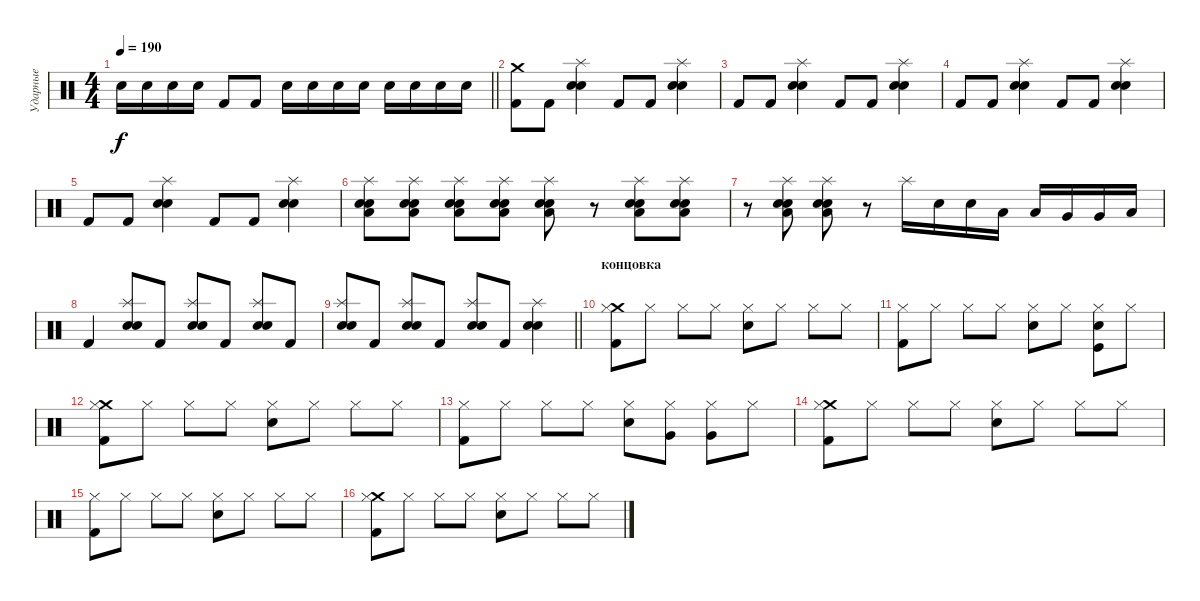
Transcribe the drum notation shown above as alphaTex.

\track ("Ударные" "Ударные") {instrument percussion}
\staff {score}
\articulation defaults
\ts (4 4)
\tempo 190
\clef neutral
\barLineRight lightlight
\ks c "Electric Snare (hit)".16{dy f} "Electric Snare (hit)".16 "Electric Snare (hit)".16 "Electric Snare (hit)".16 "Kick (hit) 2".8 "Kick (hit) 2".8 "Electric Snare (hit)".16 "Electric Snare (hit)".16 "Electric Snare (hit)".16 "Electric Snare (hit)".16 "Electric Snare (hit)".16 "Electric Snare (hit)".16 "Electric Snare (hit)".16 "Electric Snare (hit)".16
|
("Crash medium (hit)" "Kick (hit) 2").8 "Kick (hit) 2".8 ("Splash (hit)" "Electric Snare (hit)" "Snare (hit) 2").4 "Kick (hit) 2".8 "Kick (hit) 2".8 ("Splash (hit)" "Electric Snare (hit)" "Snare (hit) 2").4 |
"Kick (hit) 2".8 "Kick (hit) 2".8 ("Splash (hit)" "Electric Snare (hit)" "Snare (hit) 2").4 "Kick (hit) 2".8 "Kick (hit) 2".8 ("Splash (hit)" "Electric Snare (hit)" "Snare (hit) 2").4 |
"Kick (hit) 2".8 "Kick (hit) 2".8 ("Splash (hit)" "Electric Snare (hit)" "Snare (hit) 2").4 "Kick (hit) 2".8 "Kick (hit) 2".8 ("Splash (hit)" "Electric Snare (hit)" "Snare (hit) 2").4 |
"Kick (hit) 2".8 "Kick (hit) 2".8 ("Splash (hit)" "Electric Snare (hit)" "Snare (hit) 2").4 "Kick (hit) 2".8 "Kick (hit) 2".8 ("Splash (hit)" "Electric Snare (hit)" "Snare (hit) 2").4 |
("Splash (hit)" "Electric Snare (hit)" "Low Tom (hit)" "Snare (hit) 2").8 ("Splash (hit)" "Electric Snare (hit)" "Low Tom (hit)" "Snare (hit) 2").8 ("Splash (hit)" "Electric Snare (hit)" "Low Tom (hit)" "Snare (hit) 2").8 ("Splash (hit)" "Electric Snare (hit)" "Low Tom (hit)" "Snare (hit) 2").8 ("Splash (hit)" "Electric Snare (hit)" "Low Tom (hit)" "Snare (hit) 2").8 r.8 ("Splash (hit)" "Electric Snare (hit)" "Low Tom (hit)" "Snare (hit) 2").8 ("Splash (hit)" "Electric Snare (hit)" "Low Tom (hit)" "Snare (hit) 2").8 |
r.8 ("Splash (hit)" "Electric Snare (hit)" "Low Tom (hit)" "Snare (hit) 2").8 ("Splash (hit)" "Electric Snare (hit)" "Low Tom (hit)" "Snare (hit) 2").8 r.8 "Splash (hit)".16 "Electric Snare (hit)".16 "Electric Snare (hit)".16 "Low Tom (hit)".16 "Low Tom (hit)".16 "Very Low Tom (hit)".16 "Very Low Tom (hit)".16 "Low Floor Tom (hit)".16 |
"Kick (hit) 2".4 ("Splash (hit)" "Electric Snare (hit)" "Snare (hit) 2").8 "Kick (hit) 2".8 ("Splash (hit)" "Electric Snare (hit)" "Snare (hit) 2").8 "Kick (hit) 2".8 ("Splash (hit)" "Electric Snare (hit)" "Snare (hit) 2").8 "Kick (hit) 2".8 |
\barLineRight lightlight
("Splash (hit)" "Electric Snare (hit)" "Snare (hit) 2").8 "Kick (hit) 2".8 ("Splash (hit)" "Electric Snare (hit)" "Snare (hit) 2").8 "Kick (hit) 2".8 ("Splash (hit)" "Electric Snare (hit)" "Snare (hit) 2").8 "Kick (hit) 2".8 ("Splash (hit)" "Electric Snare (hit)" "Snare (hit) 2").4 |
\section ("" "концовка")
("Crash medium (hit)" "Hi-Hat (closed)" "Kick (hit) 2").8 "Hi-Hat (closed)".8 "Hi-Hat (closed)".8 "Hi-Hat (closed)".8 ("Hi-Hat (closed)" "Electric Snare (hit)").8 "Hi-Hat (closed)".8 "Hi-Hat (closed)".8 "Hi-Hat (closed)".8 |
("Hi-Hat (closed)" "Kick (hit) 2").8 "Hi-Hat (closed)".8 "Hi-Hat (closed)".8 "Hi-Hat (closed)".8 ("Hi-Hat (closed)" "Electric Snare (hit)").8 "Hi-Hat (closed)".8 ("Hi-Hat (closed)" "Electric Snare (hit)" "Kick (hit)").8 "Hi-Hat (closed)".8 |
("Crash medium (hit)" "Hi-Hat (closed)" "Kick (hit) 2").8 "Hi-Hat (closed)".8 "Hi-Hat (closed)".8 "Hi-Hat (closed)".8 ("Hi-Hat (closed)" "Electric Snare (hit)").8 "Hi-Hat (closed)".8 "Hi-Hat (closed)".8 "Hi-Hat (closed)".8 |
("Hi-Hat (closed)" "Kick (hit) 2").8 "Hi-Hat (closed)".8 "Hi-Hat (closed)".8 "Hi-Hat (closed)".8 ("Hi-Hat (closed)" "Electric Snare (hit)").8 ("Hi-Hat (closed)" "Very Low Tom (hit)").8 ("Hi-Hat (closed)" "Very Low Tom (hit)").8 "Hi-Hat (closed)".8 |
("Crash medium (hit)" "Hi-Hat (closed)" "Kick (hit) 2").8 "Hi-Hat (closed)".8 "Hi-Hat (closed)".8 "Hi-Hat (closed)".8 ("Hi-Hat (closed)" "Electric Snare (hit)").8 "Hi-Hat (closed)".8 "Hi-Hat (closed)".8 "Hi-Hat (closed)".8 |
("Hi-Hat (closed)" "Kick (hit) 2").8 "Hi-Hat (closed)".8 "Hi-Hat (closed)".8 "Hi-Hat (closed)".8 ("Hi-Hat (closed)" "Electric Snare (hit)").8 "Hi-Hat (closed)".8 "Hi-Hat (closed)".8 "Hi-Hat (closed)".8 |
("Crash medium (hit)" "Hi-Hat (closed)" "Kick (hit) 2").8 "Hi-Hat (closed)".8 "Hi-Hat (closed)".8 "Hi-Hat (closed)".8 ("Hi-Hat (closed)" "Electric Snare (hit)").8 "Hi-Hat (closed)".8 "Hi-Hat (closed)".8 "Hi-Hat (closed)".8
